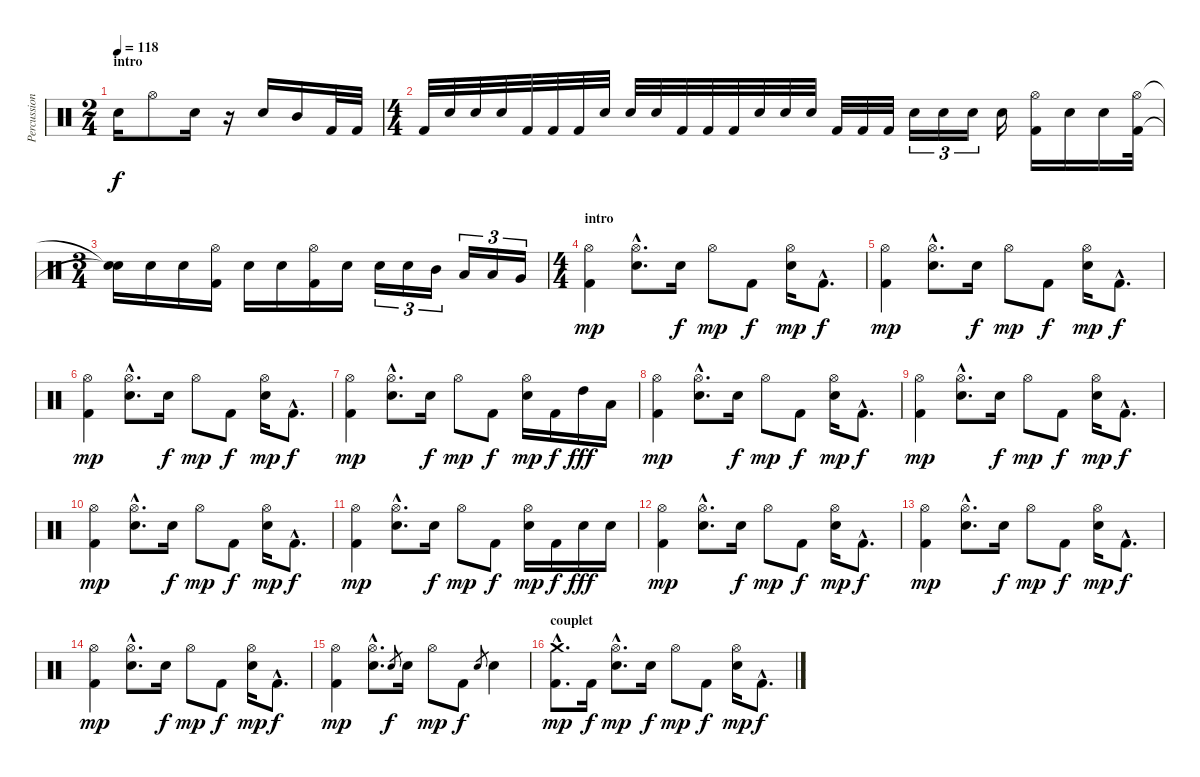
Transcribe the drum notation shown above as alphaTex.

\track ("Percussions" "Percussion") {instrument percussion}
\staff {score}
\articulation defaults
\ts (2 4)
\section ("" "intro")
\tempo 118
\clef neutral
\ks c "Snare (hit) 2".16{dy f} "Hi-Hat (open)".8 "Snare (hit) 2".16
r.16 "Snare (hit) 2".16 "Mid Tom (hit)".16 "Kick (hit) 2".32 "Kick (hit) 2".32 |
\ts (4 4)
"Kick (hit) 2".32 "Snare (hit) 2".32 "Snare (hit) 2".32 "Snare (hit) 2".32 "Kick (hit) 2".32 "Kick (hit) 2".32 "Kick (hit) 2".32 "Snare (hit) 2".32 "Snare (hit) 2".32 "Snare (hit) 2".32 "Kick (hit) 2".32 "Kick (hit) 2".32 "Kick (hit) 2".32 "Snare (hit) 2".32 "Snare (hit) 2".32 "Snare (hit) 2".32 "Kick (hit) 2".32 "Kick (hit) 2".32 "Kick (hit) 2".32 "Snare (hit) 2".16{tu (3 2)} "Snare (hit) 2".16{tu (3 2)} "Snare (hit) 2".16{tu (3 2)} "Snare (hit) 2".16 ("Hi-Hat (open)" "Kick (hit) 2").16 "Snare (hit) 2".16 "Snare (hit) 2".16 ("Hi-Hat (open)" "Kick (hit) 2").32 |
\ts (3 4)
("Snare (hit)"{t} "Snare (hit)"{t}).16 "Snare (hit) 2".16 "Snare (hit) 2".16 ("Hi-Hat (open)" "Kick (hit) 2").16 "Snare (hit) 2".16 "Snare (hit) 2".16 ("Hi-Hat (open)" "Kick (hit) 2").16 "Snare (hit) 2".16 "Snare (hit) 2".16{tu (3 2)} "Snare (hit) 2".16{tu (3 2)} "Mid Tom (hit)".16{tu (3 2)} "Low Tom (hit)".16{tu (3 2)} "Low Tom (hit)".16{tu (3 2)} "Very Low Tom (hit)".16{tu (3 2)} |
\ts (4 4)
\section ("" "intro")
("Hi-Hat (open)" "Kick (hit) 2").4{dy mp} ("Hi-Hat (open)"{hac} "Snare (hit) 2"{hac}).8{d} "Snare (hit) 2".16{dy f} "Hi-Hat (open)".8{dy mp} "Kick (hit) 2".8{dy f} ("Hi-Hat (open)" "Snare (hit) 2").16{dy mp} "Kick (hit) 2"{hac}.8{d dy f} |
("Hi-Hat (open)" "Kick (hit) 2").4{dy mp} ("Hi-Hat (open)"{hac} "Snare (hit) 2"{hac}).8{d} "Snare (hit) 2".16{dy f} "Hi-Hat (open)".8{dy mp} "Kick (hit) 2".8{dy f} ("Hi-Hat (open)" "Snare (hit) 2").16{dy mp} "Kick (hit) 2"{hac}.8{d dy f} |
("Hi-Hat (open)" "Kick (hit) 2").4{dy mp} ("Hi-Hat (open)"{hac} "Snare (hit) 2"{hac}).8{d} "Snare (hit) 2".16{dy f} "Hi-Hat (open)".8{dy mp} "Kick (hit) 2".8{dy f} ("Hi-Hat (open)" "Snare (hit) 2").16{dy mp} "Kick (hit) 2"{hac}.8{d dy f} |
("Hi-Hat (open)" "Kick (hit) 2").4{dy mp} ("Hi-Hat (open)"{hac} "Snare (hit) 2"{hac}).8{d} "Snare (hit) 2".16{dy f} "Hi-Hat (open)".8{dy mp} "Kick (hit) 2".8{dy f} ("Hi-Hat (open)" "Snare (hit) 2").16{dy mp} "Kick (hit) 2".16{dy f} "High Tom (hit)".16{dy fff} "Low Tom (hit)".16 |
("Hi-Hat (open)" "Kick (hit) 2").4{dy mp} ("Hi-Hat (open)"{hac} "Snare (hit) 2"{hac}).8{d} "Snare (hit) 2".16{dy f} "Hi-Hat (open)".8{dy mp} "Kick (hit) 2".8{dy f} ("Hi-Hat (open)" "Snare (hit) 2").16{dy mp} "Kick (hit) 2"{hac}.8{d dy f} |
("Hi-Hat (open)" "Kick (hit) 2").4{dy mp} ("Hi-Hat (open)"{hac} "Snare (hit) 2"{hac}).8{d} "Snare (hit) 2".16{dy f} "Hi-Hat (open)".8{dy mp} "Kick (hit) 2".8{dy f} ("Hi-Hat (open)" "Snare (hit) 2").16{dy mp} "Kick (hit) 2"{hac}.8{d dy f} |
("Hi-Hat (open)" "Kick (hit) 2").4{dy mp} ("Hi-Hat (open)"{hac} "Snare (hit) 2"{hac}).8{d} "Snare (hit) 2".16{dy f} "Hi-Hat (open)".8{dy mp} "Kick (hit) 2".8{dy f} ("Hi-Hat (open)" "Snare (hit) 2").16{dy mp} "Kick (hit) 2"{hac}.8{d dy f} |
("Hi-Hat (open)" "Kick (hit) 2").4{dy mp} ("Hi-Hat (open)"{hac} "Snare (hit) 2"{hac}).8{d} "Snare (hit) 2".16{dy f} "Hi-Hat (open)".8{dy mp} "Kick (hit) 2".8{dy f} ("Hi-Hat (open)" "Snare (hit) 2").16{dy mp} "Kick (hit) 2".16{dy f} "Snare (hit) 2".16{dy fff} "Snare (hit) 2".16 |
("Hi-Hat (open)" "Kick (hit) 2").4{dy mp} ("Hi-Hat (open)"{hac} "Snare (hit) 2"{hac}).8{d} "Snare (hit) 2".16{dy f} "Hi-Hat (open)".8{dy mp} "Kick (hit) 2".8{dy f} ("Hi-Hat (open)" "Snare (hit) 2").16{dy mp} "Kick (hit) 2"{hac}.8{d dy f} |
("Hi-Hat (open)" "Kick (hit) 2").4{dy mp} ("Hi-Hat (open)"{hac} "Snare (hit) 2"{hac}).8{d} "Snare (hit) 2".16{dy f} "Hi-Hat (open)".8{dy mp} "Kick (hit) 2".8{dy f} ("Hi-Hat (open)" "Snare (hit) 2").16{dy mp} "Kick (hit) 2"{hac}.8{d dy f} |
("Hi-Hat (open)" "Kick (hit) 2").4{dy mp} ("Hi-Hat (open)"{hac} "Snare (hit) 2"{hac}).8{d} "Snare (hit) 2".16{dy f} "Hi-Hat (open)".8{dy mp} "Kick (hit) 2".8{dy f} ("Hi-Hat (open)" "Snare (hit) 2").16{dy mp} "Kick (hit) 2"{hac}.8{d dy f} |
("Hi-Hat (open)" "Kick (hit) 2").4{dy mp} ("Hi-Hat (open)"{hac} "Snare (hit) 2"{hac}).8{d} "Snare (hit) 2".8{gr dy f} "Snare (hit) 2".16 "Hi-Hat (open)".8{dy mp} "Kick (hit) 2".8{dy f} "Snare (hit) 2".8{gr} "Snare (hit) 2".4 |
\section ("" "couplet")
("Crash medium (hit)"{hac} "Kick (hit) 2"{hac}).8{d dy mp} "Kick (hit) 2".16{dy f} ("Hi-Hat (open)"{hac} "Snare (hit) 2"{hac}).8{d dy mp} "Electric Snare (hit)".16{dy f} "Hi-Hat (open)".8{dy mp} "Kick (hit) 2".8{dy f} ("Hi-Hat (open)" "Snare (hit) 2").16{dy mp} "Kick (hit) 2"{hac}.8{d dy f}
